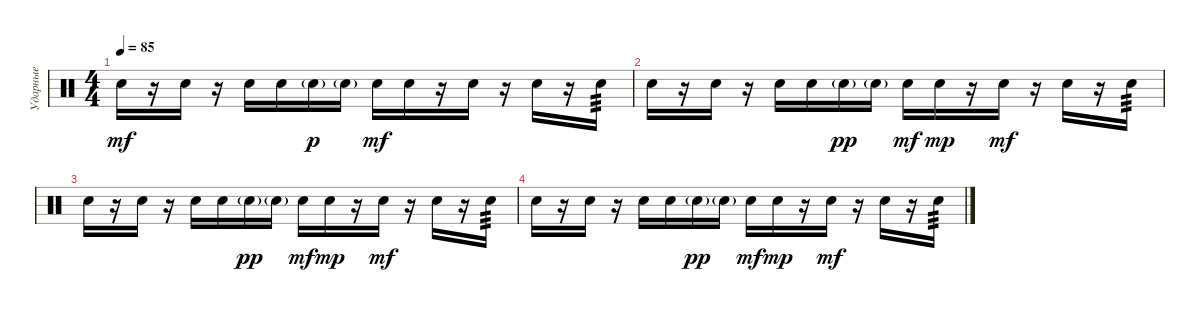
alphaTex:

\track ("Ударные" "Ударные") {instrument percussion}
\staff {score}
\articulation defaults
\ts (4 4)
\tempo 85
\clef neutral
\ks c "Hand Clap (hit)".16{dy mf}
r.16 "Hand Clap (hit)".16 r.16 "Hand Clap (hit)".16 "Hand Clap (hit)".16 "Hand Clap (hit)"{g}.16{dy p} "Hand Clap (hit)"{g}.16 "Hand Clap (hit)".16{dy mf} "Hand Clap (hit)".16 r.16 "Hand Clap (hit)".16 r.16 "Hand Clap (hit)".16 r.16 "Hand Clap (hit)".16{tp 3} |
"Hand Clap (hit)".16 r.16 "Hand Clap (hit)".16 r.16 "Hand Clap (hit)".16 "Hand Clap (hit)".16 "Hand Clap (hit)"{g}.16{dy pp} "Hand Clap (hit)"{g}.16 "Hand Clap (hit)".16{dy mf} "Hand Clap (hit)".16{dy mp} r.16 "Hand Clap (hit)".16{dy mf} r.16 "Hand Clap (hit)".16 r.16 "Hand Clap (hit)".16{tp 3} |
"Hand Clap (hit)".16 r.16 "Hand Clap (hit)".16 r.16 "Hand Clap (hit)".16 "Hand Clap (hit)".16 "Hand Clap (hit)"{g}.16{dy pp} "Hand Clap (hit)"{g}.16 "Hand Clap (hit)".16{dy mf} "Hand Clap (hit)".16{dy mp} r.16 "Hand Clap (hit)".16{dy mf} r.16 "Hand Clap (hit)".16 r.16 "Hand Clap (hit)".16{tp 3} |
"Hand Clap (hit)".16 r.16 "Hand Clap (hit)".16 r.16 "Hand Clap (hit)".16 "Hand Clap (hit)".16 "Hand Clap (hit)"{g}.16{dy pp} "Hand Clap (hit)"{g}.16 "Hand Clap (hit)".16{dy mf} "Hand Clap (hit)".16{dy mp} r.16 "Hand Clap (hit)".16{dy mf} r.16 "Hand Clap (hit)".16 r.16 "Hand Clap (hit)".16{tp 3}
